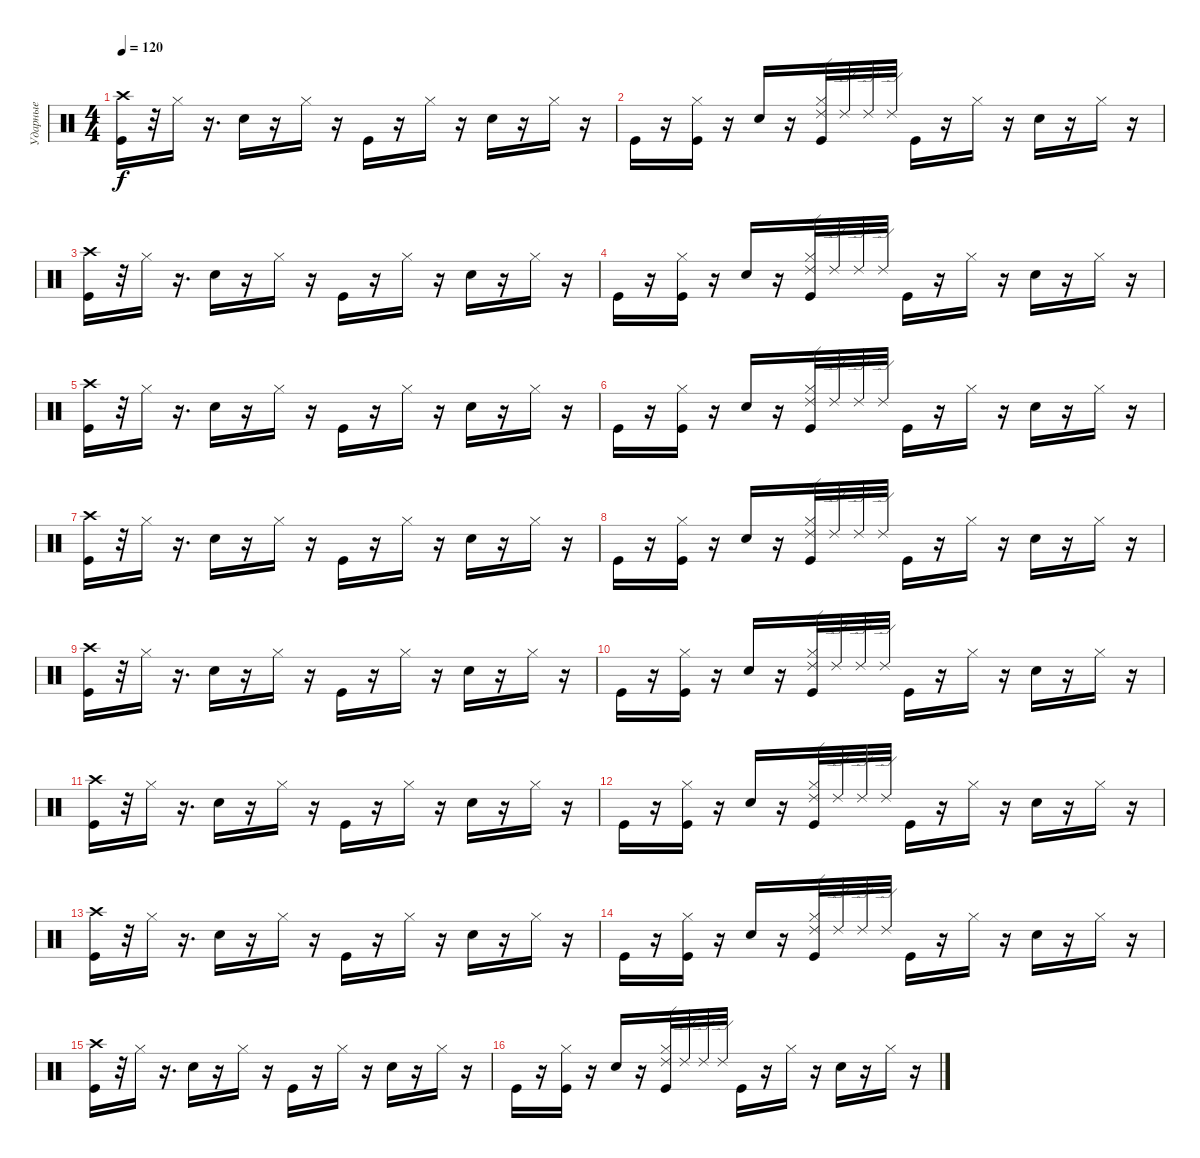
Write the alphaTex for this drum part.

\track ("Ударные" "Ударные") {instrument percussion}
\staff {score}
\articulation defaults
\ts (4 4)
\tempo 120
\clef neutral
\ks c
("Crash high (hit)" "Kick (hit)").16{dy f} r.32 "Hi-Hat (closed)".16 r.16{d} "Electric Snare (hit)".16 r.16 "Hi-Hat (closed)".16 r.16 "Kick (hit)".16 r.16 "Hi-Hat (closed)".16 r.16 "Electric Snare (hit)".16 r.16 "Hi-Hat (closed)".16 r.16 |
"Kick (hit)".16 r.16 ("Hi-Hat (closed)" "Kick (hit)").16 r.16 "Electric Snare (hit)".16 r.16 ("Hi-Hat (closed)" "Kick (hit)" "Ride (edge) 2").32 "Ride (edge) 2".32 "Ride (edge) 2".32 "Ride (edge) 2".32 "Kick (hit)".16 r.16 "Hi-Hat (closed)".16 r.16 "Electric Snare (hit)".16 r.16 "Hi-Hat (closed)".16 r.16 |
("Crash high (hit)" "Kick (hit)").16 r.32 "Hi-Hat (closed)".16 r.16{d} "Electric Snare (hit)".16 r.16 "Hi-Hat (closed)".16 r.16 "Kick (hit)".16 r.16 "Hi-Hat (closed)".16 r.16 "Electric Snare (hit)".16 r.16 "Hi-Hat (closed)".16 r.16 |
"Kick (hit)".16 r.16 ("Hi-Hat (closed)" "Kick (hit)").16 r.16 "Electric Snare (hit)".16 r.16 ("Hi-Hat (closed)" "Kick (hit)" "Ride (edge) 2").32 "Ride (edge) 2".32 "Ride (edge) 2".32 "Ride (edge) 2".32 "Kick (hit)".16 r.16 "Hi-Hat (closed)".16 r.16 "Electric Snare (hit)".16 r.16 "Hi-Hat (closed)".16 r.16 |
("Crash high (hit)" "Kick (hit)").16 r.32 "Hi-Hat (closed)".16 r.16{d} "Electric Snare (hit)".16 r.16 "Hi-Hat (closed)".16 r.16 "Kick (hit)".16 r.16 "Hi-Hat (closed)".16 r.16 "Electric Snare (hit)".16 r.16 "Hi-Hat (closed)".16 r.16 |
"Kick (hit)".16 r.16 ("Hi-Hat (closed)" "Kick (hit)").16 r.16 "Electric Snare (hit)".16 r.16 ("Hi-Hat (closed)" "Kick (hit)" "Ride (edge) 2").32 "Ride (edge) 2".32 "Ride (edge) 2".32 "Ride (edge) 2".32 "Kick (hit)".16 r.16 "Hi-Hat (closed)".16 r.16 "Electric Snare (hit)".16 r.16 "Hi-Hat (closed)".16 r.16 |
("Crash high (hit)" "Kick (hit)").16 r.32 "Hi-Hat (closed)".16 r.16{d} "Electric Snare (hit)".16 r.16 "Hi-Hat (closed)".16 r.16 "Kick (hit)".16 r.16 "Hi-Hat (closed)".16 r.16 "Electric Snare (hit)".16 r.16 "Hi-Hat (closed)".16 r.16 |
"Kick (hit)".16 r.16 ("Hi-Hat (closed)" "Kick (hit)").16 r.16 "Electric Snare (hit)".16 r.16 ("Hi-Hat (closed)" "Kick (hit)" "Ride (edge) 2").32 "Ride (edge) 2".32 "Ride (edge) 2".32 "Ride (edge) 2".32 "Kick (hit)".16 r.16 "Hi-Hat (closed)".16 r.16 "Electric Snare (hit)".16 r.16 "Hi-Hat (closed)".16 r.16 |
("Crash high (hit)" "Kick (hit)").16 r.32 "Hi-Hat (closed)".16 r.16{d} "Electric Snare (hit)".16 r.16 "Hi-Hat (closed)".16 r.16 "Kick (hit)".16 r.16 "Hi-Hat (closed)".16 r.16 "Electric Snare (hit)".16 r.16 "Hi-Hat (closed)".16 r.16 |
"Kick (hit)".16 r.16 ("Hi-Hat (closed)" "Kick (hit)").16 r.16 "Electric Snare (hit)".16 r.16 ("Hi-Hat (closed)" "Kick (hit)" "Ride (edge) 2").32 "Ride (edge) 2".32 "Ride (edge) 2".32 "Ride (edge) 2".32 "Kick (hit)".16 r.16 "Hi-Hat (closed)".16 r.16 "Electric Snare (hit)".16 r.16 "Hi-Hat (closed)".16 r.16 |
("Crash high (hit)" "Kick (hit)").16 r.32 "Hi-Hat (closed)".16 r.16{d} "Electric Snare (hit)".16 r.16 "Hi-Hat (closed)".16 r.16 "Kick (hit)".16 r.16 "Hi-Hat (closed)".16 r.16 "Electric Snare (hit)".16 r.16 "Hi-Hat (closed)".16 r.16 |
"Kick (hit)".16 r.16 ("Hi-Hat (closed)" "Kick (hit)").16 r.16 "Electric Snare (hit)".16 r.16 ("Hi-Hat (closed)" "Kick (hit)" "Ride (edge) 2").32 "Ride (edge) 2".32 "Ride (edge) 2".32 "Ride (edge) 2".32 "Kick (hit)".16 r.16 "Hi-Hat (closed)".16 r.16 "Electric Snare (hit)".16 r.16 "Hi-Hat (closed)".16 r.16 |
("Crash high (hit)" "Kick (hit)").16 r.32 "Hi-Hat (closed)".16 r.16{d} "Electric Snare (hit)".16 r.16 "Hi-Hat (closed)".16 r.16 "Kick (hit)".16 r.16 "Hi-Hat (closed)".16 r.16 "Electric Snare (hit)".16 r.16 "Hi-Hat (closed)".16 r.16 |
"Kick (hit)".16 r.16 ("Hi-Hat (closed)" "Kick (hit)").16 r.16 "Electric Snare (hit)".16 r.16 ("Hi-Hat (closed)" "Kick (hit)" "Ride (edge) 2").32 "Ride (edge) 2".32 "Ride (edge) 2".32 "Ride (edge) 2".32 "Kick (hit)".16 r.16 "Hi-Hat (closed)".16 r.16 "Electric Snare (hit)".16 r.16 "Hi-Hat (closed)".16 r.16 |
("Crash high (hit)" "Kick (hit)").16 r.32 "Hi-Hat (closed)".16 r.16{d} "Electric Snare (hit)".16 r.16 "Hi-Hat (closed)".16 r.16 "Kick (hit)".16 r.16 "Hi-Hat (closed)".16 r.16 "Electric Snare (hit)".16 r.16 "Hi-Hat (closed)".16 r.16 |
"Kick (hit)".16 r.16 ("Hi-Hat (closed)" "Kick (hit)").16 r.16 "Electric Snare (hit)".16 r.16 ("Hi-Hat (closed)" "Kick (hit)" "Ride (edge) 2").32 "Ride (edge) 2".32 "Ride (edge) 2".32 "Ride (edge) 2".32 "Kick (hit)".16 r.16 "Hi-Hat (closed)".16 r.16 "Electric Snare (hit)".16 r.16 "Hi-Hat (closed)".16 r.16
